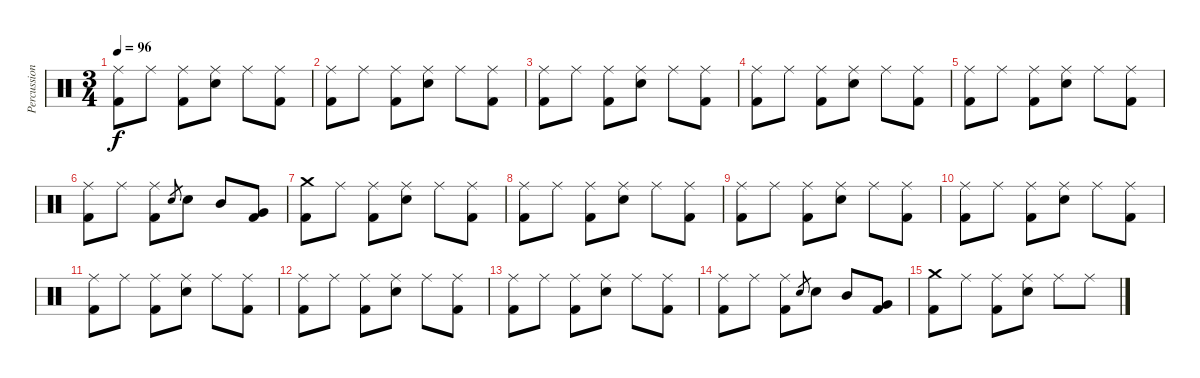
\track ("Percussion" "Percussion") {instrument percussion}
\staff {score}
\articulation defaults
\ts (3 4)
\tempo 96
\clef neutral
\ks c
("Ride (middle)" "Kick (hit) 2").8{dy f} "Ride (middle)".8 ("Ride (middle)" "Kick (hit) 2").8 ("Ride (middle)" "Snare (hit) 2").8 "Ride (middle)".8 ("Ride (middle)" "Kick (hit) 2").8 |
("Ride (middle)" "Kick (hit) 2").8 "Ride (middle)".8 ("Ride (middle)" "Kick (hit) 2").8 ("Ride (middle)" "Snare (hit) 2").8 "Ride (middle)".8 ("Ride (middle)" "Kick (hit) 2").8 |
("Ride (middle)" "Kick (hit) 2").8 "Ride (middle)".8 ("Ride (middle)" "Kick (hit) 2").8 ("Ride (middle)" "Snare (hit) 2").8 "Ride (middle)".8 ("Ride (middle)" "Kick (hit) 2").8 |
("Ride (middle)" "Kick (hit) 2").8 "Ride (middle)".8 ("Ride (middle)" "Kick (hit) 2").8 ("Ride (middle)" "Snare (hit) 2").8 "Ride (middle)".8 ("Ride (middle)" "Kick (hit) 2").8 |
("Ride (middle)" "Kick (hit) 2").8 "Ride (middle)".8 ("Ride (middle)" "Kick (hit) 2").8 ("Ride (middle)" "Snare (hit) 2").8 "Ride (middle)".8 ("Ride (middle)" "Kick (hit) 2").8 |
("Ride (middle)" "Kick (hit) 2").8 "Ride (middle)".8 ("Ride (middle)" "Kick (hit) 2").8 "Snare (hit) 2".8{gr} "Snare (hit) 2".8 "Mid Tom (hit)".8 ("Very Low Tom (hit)" "Kick (hit) 2").8 |
("Crash medium (hit)" "Kick (hit) 2").8 "Ride (middle)".8 ("Ride (middle)" "Kick (hit) 2").8 ("Ride (middle)" "Snare (hit) 2").8 "Ride (middle)".8 ("Ride (middle)" "Kick (hit) 2").8 |
("Ride (middle)" "Kick (hit) 2").8 "Ride (middle)".8 ("Ride (middle)" "Kick (hit) 2").8 ("Ride (middle)" "Snare (hit) 2").8 "Ride (middle)".8 ("Ride (middle)" "Kick (hit) 2").8 |
("Ride (middle)" "Kick (hit) 2").8 "Ride (middle)".8 ("Ride (middle)" "Kick (hit) 2").8 ("Ride (middle)" "Snare (hit) 2").8 "Ride (middle)".8 ("Ride (middle)" "Kick (hit) 2").8 |
("Ride (middle)" "Kick (hit) 2").8{volume 0} "Ride (middle)".8 ("Ride (middle)" "Kick (hit) 2").8 ("Ride (middle)" "Snare (hit) 2").8 "Ride (middle)".8 ("Ride (middle)" "Kick (hit) 2").8 |
("Ride (middle)" "Kick (hit) 2").8 "Ride (middle)".8 ("Ride (middle)" "Kick (hit) 2").8 ("Ride (middle)" "Snare (hit) 2").8 "Ride (middle)".8 ("Ride (middle)" "Kick (hit) 2").8 |
("Ride (middle)" "Kick (hit) 2").8 "Ride (middle)".8 ("Ride (middle)" "Kick (hit) 2").8 ("Ride (middle)" "Snare (hit) 2").8 "Ride (middle)".8 ("Ride (middle)" "Kick (hit) 2").8 |
("Ride (middle)" "Kick (hit) 2").8 "Ride (middle)".8 ("Ride (middle)" "Kick (hit) 2").8 ("Ride (middle)" "Snare (hit) 2").8 "Ride (middle)".8 ("Ride (middle)" "Kick (hit) 2").8 |
("Ride (middle)" "Kick (hit) 2").8 "Ride (middle)".8 ("Ride (middle)" "Kick (hit) 2").8 "Snare (hit) 2".8{gr} "Snare (hit) 2".8 "Mid Tom (hit)".8 ("Very Low Tom (hit)" "Kick (hit) 2").8 |
("Crash medium (hit)" "Kick (hit) 2").8 "Ride (middle)".8 ("Ride (middle)" "Kick (hit) 2").8 ("Ride (middle)" "Snare (hit) 2").8 "Ride (middle)".8 "Ride (middle)".8
